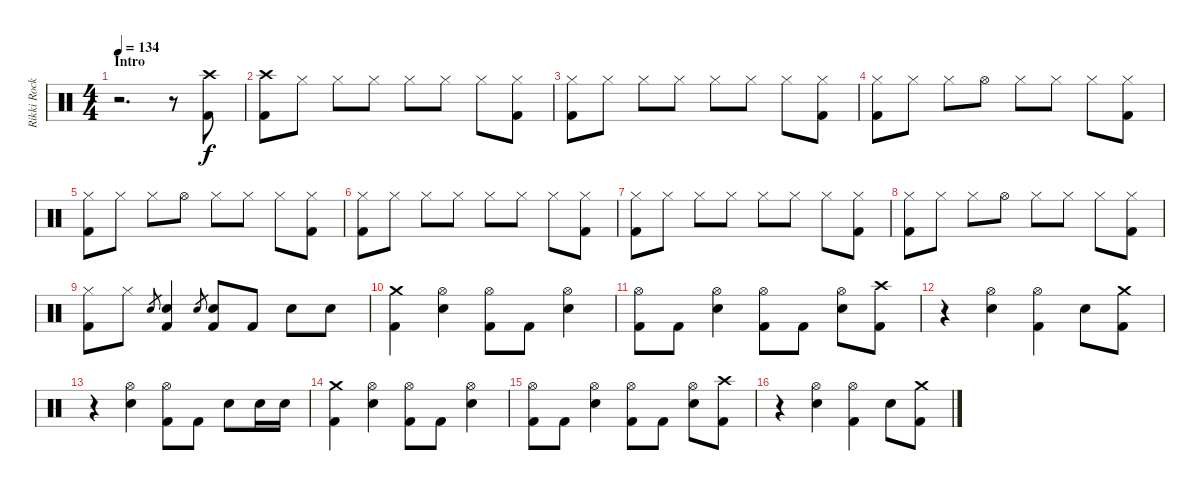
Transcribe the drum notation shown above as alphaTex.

\track ("Rikki Rocket" "Rikki Rock") {instrument percussion}
\staff {score}
\articulation defaults
\ts (4 4)
\section ("" "Intro")
\tempo 134
\clef neutral
\ks c
r.2{d dy f} r.8 ("Crash high (hit)" "Kick (hit) 2").8 |
("Crash high (hit)" "Kick (hit) 2").8 "Hi-Hat (closed)".8 "Hi-Hat (closed)".8 "Hi-Hat (closed)".8 "Hi-Hat (closed)".8 "Hi-Hat (closed)".8 "Hi-Hat (closed)".8 ("Hi-Hat (closed)" "Kick (hit) 2").8 |
("Hi-Hat (closed)" "Kick (hit) 2").8 "Hi-Hat (closed)".8 "Hi-Hat (closed)".8 "Hi-Hat (closed)".8 "Hi-Hat (closed)".8 "Hi-Hat (closed)".8 "Hi-Hat (closed)".8 ("Hi-Hat (closed)" "Kick (hit) 2").8 |
("Hi-Hat (closed)" "Kick (hit) 2").8 "Hi-Hat (closed)".8 "Hi-Hat (closed)".8 "Hi-Hat (open)".8 "Hi-Hat (closed)".8 "Hi-Hat (closed)".8 "Hi-Hat (closed)".8 ("Hi-Hat (closed)" "Kick (hit) 2").8 |
("Hi-Hat (closed)" "Kick (hit) 2").8 "Hi-Hat (closed)".8 "Hi-Hat (closed)".8 "Hi-Hat (open)".8 "Hi-Hat (closed)".8 "Hi-Hat (closed)".8 "Hi-Hat (closed)".8 ("Hi-Hat (closed)" "Kick (hit) 2").8 |
("Hi-Hat (closed)" "Kick (hit) 2").8 "Hi-Hat (closed)".8 "Hi-Hat (closed)".8 "Hi-Hat (closed)".8 "Hi-Hat (closed)".8 "Hi-Hat (closed)".8 "Hi-Hat (closed)".8 ("Hi-Hat (closed)" "Kick (hit) 2").8 |
("Hi-Hat (closed)" "Kick (hit) 2").8 "Hi-Hat (closed)".8 "Hi-Hat (closed)".8 "Hi-Hat (closed)".8 "Hi-Hat (closed)".8 "Hi-Hat (closed)".8 "Hi-Hat (closed)".8 ("Hi-Hat (closed)" "Kick (hit) 2").8 |
("Hi-Hat (closed)" "Kick (hit) 2").8 "Hi-Hat (closed)".8 "Hi-Hat (closed)".8 "Hi-Hat (open)".8 "Hi-Hat (closed)".8 "Hi-Hat (closed)".8 "Hi-Hat (closed)".8 ("Hi-Hat (closed)" "Kick (hit) 2").8 |
("Hi-Hat (closed)" "Kick (hit) 2").8 "Hi-Hat (closed)".8 "Snare (hit) 2".8{gr} ("Snare (hit) 2" "Kick (hit) 2").4 "Snare (hit) 2".8{gr} ("Snare (hit) 2" "Kick (hit) 2").8 "Kick (hit) 2".8 "Snare (hit) 2".8 "Snare (hit) 2".8 |
("Crash medium (hit)" "Kick (hit) 2").4 ("Hi-Hat (open)" "Snare (hit) 2").4 ("Hi-Hat (open)" "Kick (hit) 2").8 "Kick (hit) 2".8 ("Hi-Hat (open)" "Snare (hit) 2").4 |
("Hi-Hat (open)" "Kick (hit) 2").8 "Kick (hit) 2".8 ("Hi-Hat (open)" "Snare (hit) 2").4 ("Hi-Hat (open)" "Kick (hit) 2").8 "Kick (hit) 2".8 ("Hi-Hat (open)" "Snare (hit) 2").8 ("Crash high (hit)" "Kick (hit) 2").8 |
r.4 ("Hi-Hat (open)" "Snare (hit) 2").4 ("Hi-Hat (open)" "Kick (hit) 2").4 "Snare (hit) 2".8 ("Crash medium (hit)" "Kick (hit) 2").8 |
r.4 ("Hi-Hat (open)" "Snare (hit) 2").4 ("Hi-Hat (open)" "Kick (hit) 2").8 "Kick (hit) 2".8 "Snare (hit) 2".8 "Snare (hit) 2".16 "Snare (hit) 2".16 |
("Crash medium (hit)" "Kick (hit) 2").4 ("Hi-Hat (open)" "Snare (hit) 2").4 ("Hi-Hat (open)" "Kick (hit) 2").8 "Kick (hit) 2".8 ("Hi-Hat (open)" "Snare (hit) 2").4 |
("Hi-Hat (open)" "Kick (hit) 2").8 "Kick (hit) 2".8 ("Hi-Hat (open)" "Snare (hit) 2").4 ("Hi-Hat (open)" "Kick (hit) 2").8 "Kick (hit) 2".8 ("Hi-Hat (open)" "Snare (hit) 2").8 ("Crash high (hit)" "Kick (hit) 2").8 |
r.4 ("Hi-Hat (open)" "Snare (hit) 2").4 ("Hi-Hat (open)" "Kick (hit) 2").4 "Snare (hit) 2".8 ("Crash medium (hit)" "Kick (hit) 2").8
